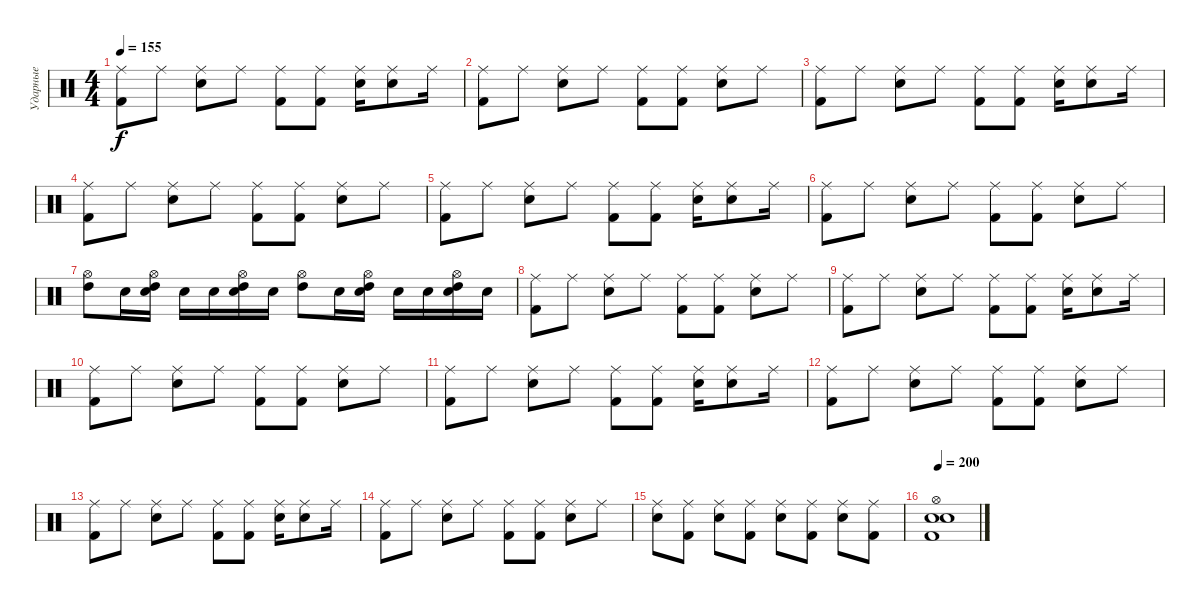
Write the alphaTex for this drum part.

\track ("Ударные" "Ударные") {solo instrument percussion}
\staff {score}
\articulation defaults
\ts (4 4)
\tempo 155
\clef neutral
\ks c
("Ride (middle)" "Kick (hit) 2").8{dy f} "Ride (middle)".8 ("Ride (middle)" "Snare (hit) 2").8 "Ride (middle)".8 ("Ride (middle)" "Kick (hit) 2").8 ("Ride (middle)" "Kick (hit) 2").8 ("Ride (middle)" "Snare (hit) 2").16 ("Ride (middle)" "Snare (hit) 2").8 "Ride (middle)".16 |
("Ride (middle)" "Kick (hit) 2").8 "Ride (middle)".8 ("Ride (middle)" "Snare (hit) 2").8 "Ride (middle)".8 ("Ride (middle)" "Kick (hit) 2").8 ("Ride (middle)" "Kick (hit) 2").8 ("Ride (middle)" "Snare (hit) 2").8 "Ride (middle)".8 |
("Ride (middle)" "Kick (hit) 2").8 "Ride (middle)".8 ("Ride (middle)" "Snare (hit) 2").8 "Ride (middle)".8 ("Ride (middle)" "Kick (hit) 2").8 ("Ride (middle)" "Kick (hit) 2").8 ("Ride (middle)" "Snare (hit) 2").16 ("Ride (middle)" "Snare (hit) 2").8 "Ride (middle)".16 |
("Ride (middle)" "Kick (hit) 2").8 "Ride (middle)".8 ("Ride (middle)" "Snare (hit) 2").8 "Ride (middle)".8 ("Ride (middle)" "Kick (hit) 2").8 ("Ride (middle)" "Kick (hit) 2").8 ("Ride (middle)" "Snare (hit) 2").8 "Ride (middle)".8 |
("Ride (middle)" "Kick (hit) 2").8 "Ride (middle)".8 ("Ride (middle)" "Snare (hit) 2").8 "Ride (middle)".8 ("Ride (middle)" "Kick (hit) 2").8 ("Ride (middle)" "Kick (hit) 2").8 ("Ride (middle)" "Snare (hit) 2").16 ("Ride (middle)" "Snare (hit) 2").8 "Ride (middle)".16 |
("Ride (middle)" "Kick (hit) 2").8 "Ride (middle)".8 ("Ride (middle)" "Snare (hit) 2").8 "Ride (middle)".8 ("Ride (middle)" "Kick (hit) 2").8 ("Ride (middle)" "Kick (hit) 2").8 ("Ride (middle)" "Snare (hit) 2").8 "Ride (middle)".8 |
("Hi-Hat (open)" "High Tom (hit)").8 "Snare (hit) 2".16 ("Hi-Hat (open)" "Electric Snare (hit)" "High Tom (hit)").16 "Snare (hit) 2".16 "Electric Snare (hit)".16 ("Hi-Hat (open)" "Snare (hit) 2" "High Tom (hit)").16 "Electric Snare (hit)".16 ("Hi-Hat (open)" "High Tom (hit)").8 "Snare (hit) 2".16 ("Hi-Hat (open)" "Electric Snare (hit)" "High Tom (hit)").16 "Snare (hit) 2".16 "Electric Snare (hit)".16 ("Hi-Hat (open)" "Snare (hit) 2" "High Tom (hit)").16 "Electric Snare (hit)".16 |
("Ride (middle)" "Kick (hit) 2").8 "Ride (middle)".8 ("Ride (middle)" "Snare (hit) 2").8 "Ride (middle)".8 ("Ride (middle)" "Kick (hit) 2").8 ("Ride (middle)" "Kick (hit) 2").8 ("Ride (middle)" "Snare (hit) 2").8 "Ride (middle)".8 |
("Ride (middle)" "Kick (hit) 2").8 "Ride (middle)".8 ("Ride (middle)" "Snare (hit) 2").8 "Ride (middle)".8 ("Ride (middle)" "Kick (hit) 2").8 ("Ride (middle)" "Kick (hit) 2").8 ("Ride (middle)" "Snare (hit) 2").16 ("Ride (middle)" "Snare (hit) 2").8 "Ride (middle)".16 |
("Ride (middle)" "Kick (hit) 2").8 "Ride (middle)".8 ("Ride (middle)" "Snare (hit) 2").8 "Ride (middle)".8 ("Ride (middle)" "Kick (hit) 2").8 ("Ride (middle)" "Kick (hit) 2").8 ("Ride (middle)" "Snare (hit) 2").8 "Ride (middle)".8 |
("Ride (middle)" "Kick (hit) 2").8 "Ride (middle)".8 ("Ride (middle)" "Snare (hit) 2").8 "Ride (middle)".8 ("Ride (middle)" "Kick (hit) 2").8 ("Ride (middle)" "Kick (hit) 2").8 ("Ride (middle)" "Snare (hit) 2").16 ("Ride (middle)" "Snare (hit) 2").8 "Ride (middle)".16 |
("Ride (middle)" "Kick (hit) 2").8 "Ride (middle)".8 ("Ride (middle)" "Snare (hit) 2").8 "Ride (middle)".8 ("Ride (middle)" "Kick (hit) 2").8 ("Ride (middle)" "Kick (hit) 2").8 ("Ride (middle)" "Snare (hit) 2").8 "Ride (middle)".8 |
("Ride (middle)" "Kick (hit) 2").8 "Ride (middle)".8 ("Ride (middle)" "Snare (hit) 2").8 "Ride (middle)".8 ("Ride (middle)" "Kick (hit) 2").8 ("Ride (middle)" "Kick (hit) 2").8 ("Ride (middle)" "Snare (hit) 2").16 ("Ride (middle)" "Snare (hit) 2").8 "Ride (middle)".16 |
("Ride (middle)" "Kick (hit) 2").8 "Ride (middle)".8 ("Ride (middle)" "Snare (hit) 2").8 "Ride (middle)".8 ("Ride (middle)" "Kick (hit) 2").8 ("Ride (middle)" "Kick (hit) 2").8 ("Ride (middle)" "Snare (hit) 2").8 "Ride (middle)".8 |
("Ride (middle)" "Snare (hit) 2").8 ("Ride (middle)" "Kick (hit) 2").8 ("Ride (middle)" "Snare (hit) 2").8 ("Ride (middle)" "Kick (hit) 2").8 ("Ride (middle)" "Snare (hit) 2").8 ("Ride (middle)" "Kick (hit) 2").8 ("Ride (middle)" "Snare (hit) 2").8 ("Ride (middle)" "Kick (hit) 2").8 |
\tempo 200
("Electric Snare (hit)" "Kick (hit) 2" "Snare (hit) 2" "Hi-Hat (open)").1
